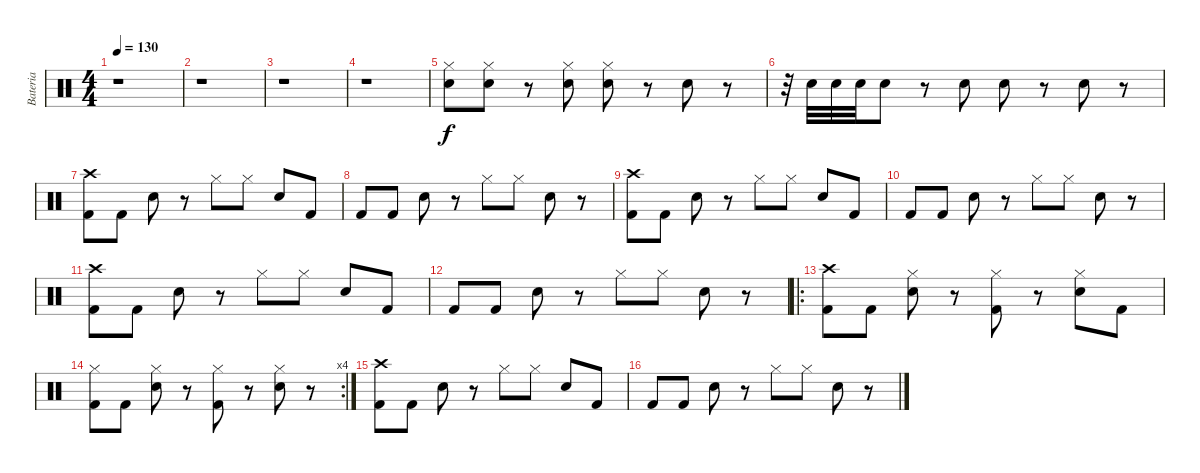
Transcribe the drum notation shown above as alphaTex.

\track ("Bateria" "Bateria") {instrument percussion}
\staff {score}
\articulation defaults
\ts (4 4)
\tempo 130
\clef neutral
\ks c
r.1{dy f} |
r.1 |
r.1 |
r.1 |
("Snare (hit) 2" "Hi-Hat (closed)").8 ("Snare (hit) 2" "Hi-Hat (closed)").8 r.8 ("Snare (hit) 2" "Hi-Hat (closed)").8 ("Snare (hit) 2" "Hi-Hat (closed)").8 r.8 "Snare (hit) 2".8 r.8 |
r.32 "Snare (hit) 2".32 "Snare (hit) 2".32 "Snare (hit) 2".32 "Snare (hit) 2".8 r.8 "Snare (hit) 2".8 "Snare (hit) 2".8 r.8 "Snare (hit) 2".8 r.8 |
("Kick (hit) 2" "Crash high (hit)").8 "Kick (hit) 2".8 "Snare (hit) 2".8 r.8 "Hi-Hat (closed)".8 "Hi-Hat (closed)".8 "Snare (hit) 2".8 "Kick (hit) 2".8 |
"Kick (hit) 2".8 "Kick (hit) 2".8 "Snare (hit) 2".8 r.8 "Hi-Hat (closed)".8 "Hi-Hat (closed)".8 "Snare (hit) 2".8 r.8 |
("Kick (hit) 2" "Crash high (hit)").8 "Kick (hit) 2".8 "Snare (hit) 2".8 r.8 "Hi-Hat (closed)".8 "Hi-Hat (closed)".8 "Snare (hit) 2".8 "Kick (hit) 2".8 |
"Kick (hit) 2".8 "Kick (hit) 2".8 "Snare (hit) 2".8 r.8 "Hi-Hat (closed)".8 "Hi-Hat (closed)".8 "Snare (hit) 2".8 r.8 |
("Kick (hit) 2" "Crash high (hit)").8 "Kick (hit) 2".8 "Snare (hit) 2".8 r.8 "Hi-Hat (closed)".8 "Hi-Hat (closed)".8 "Snare (hit) 2".8 "Kick (hit) 2".8 |
"Kick (hit) 2".8 "Kick (hit) 2".8 "Snare (hit) 2".8 r.8 "Hi-Hat (closed)".8 "Hi-Hat (closed)".8 "Snare (hit) 2".8 r.8 |
\ro
("Kick (hit) 2" "Crash high (hit)").8 "Kick (hit) 2".8 ("Snare (hit) 2" "Hi-Hat (closed)").8 r.8 ("Kick (hit) 2" "Hi-Hat (closed)").8 r.8 ("Snare (hit) 2" "Hi-Hat (closed)").8 "Kick (hit) 2".8 |
\rc 4
("Kick (hit) 2" "Hi-Hat (closed)").8 "Kick (hit) 2".8 ("Snare (hit) 2" "Hi-Hat (closed)").8 r.8 ("Kick (hit) 2" "Hi-Hat (closed)").8 r.8 ("Snare (hit) 2" "Hi-Hat (closed)").8 r.8 |
("Kick (hit) 2" "Crash high (hit)").8 "Kick (hit) 2".8 "Snare (hit) 2".8 r.8 "Hi-Hat (closed)".8 "Hi-Hat (closed)".8 "Snare (hit) 2".8 "Kick (hit) 2".8 |
"Kick (hit) 2".8 "Kick (hit) 2".8 "Snare (hit) 2".8 r.8 "Hi-Hat (closed)".8 "Hi-Hat (closed)".8 "Snare (hit) 2".8 r.8
